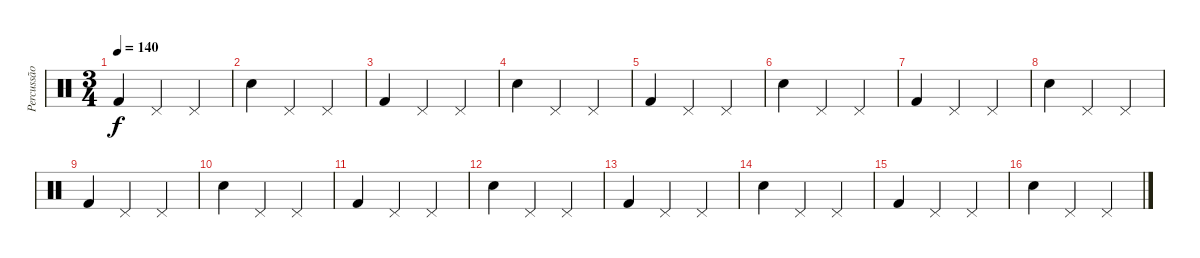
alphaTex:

\track ("Percussão" "Percussão") {instrument percussion}
\staff {score}
\articulation defaults
\ts (3 4)
\tempo 140
\clef neutral
\ks c "Kick (hit) 2".4{dy f} "Pedal Hi-Hat (hit)".4 "Pedal Hi-Hat (hit)".4
|
"Electric Snare (hit)".4 "Pedal Hi-Hat (hit)".4 "Pedal Hi-Hat (hit)".4 |
"Kick (hit) 2".4 "Pedal Hi-Hat (hit)".4 "Pedal Hi-Hat (hit)".4 |
"Electric Snare (hit)".4 "Pedal Hi-Hat (hit)".4 "Pedal Hi-Hat (hit)".4 |
"Kick (hit) 2".4 "Pedal Hi-Hat (hit)".4 "Pedal Hi-Hat (hit)".4 |
"Electric Snare (hit)".4 "Pedal Hi-Hat (hit)".4 "Pedal Hi-Hat (hit)".4 |
"Kick (hit) 2".4 "Pedal Hi-Hat (hit)".4 "Pedal Hi-Hat (hit)".4 |
"Electric Snare (hit)".4 "Pedal Hi-Hat (hit)".4 "Pedal Hi-Hat (hit)".4 |
"Kick (hit) 2".4 "Pedal Hi-Hat (hit)".4 "Pedal Hi-Hat (hit)".4 |
"Electric Snare (hit)".4 "Pedal Hi-Hat (hit)".4 "Pedal Hi-Hat (hit)".4 |
"Kick (hit) 2".4 "Pedal Hi-Hat (hit)".4 "Pedal Hi-Hat (hit)".4 |
"Electric Snare (hit)".4 "Pedal Hi-Hat (hit)".4 "Pedal Hi-Hat (hit)".4 |
"Kick (hit) 2".4 "Pedal Hi-Hat (hit)".4 "Pedal Hi-Hat (hit)".4 |
"Electric Snare (hit)".4 "Pedal Hi-Hat (hit)".4 "Pedal Hi-Hat (hit)".4 |
"Kick (hit) 2".4 "Pedal Hi-Hat (hit)".4 "Pedal Hi-Hat (hit)".4 |
"Electric Snare (hit)".4 "Pedal Hi-Hat (hit)".4 "Pedal Hi-Hat (hit)".4
